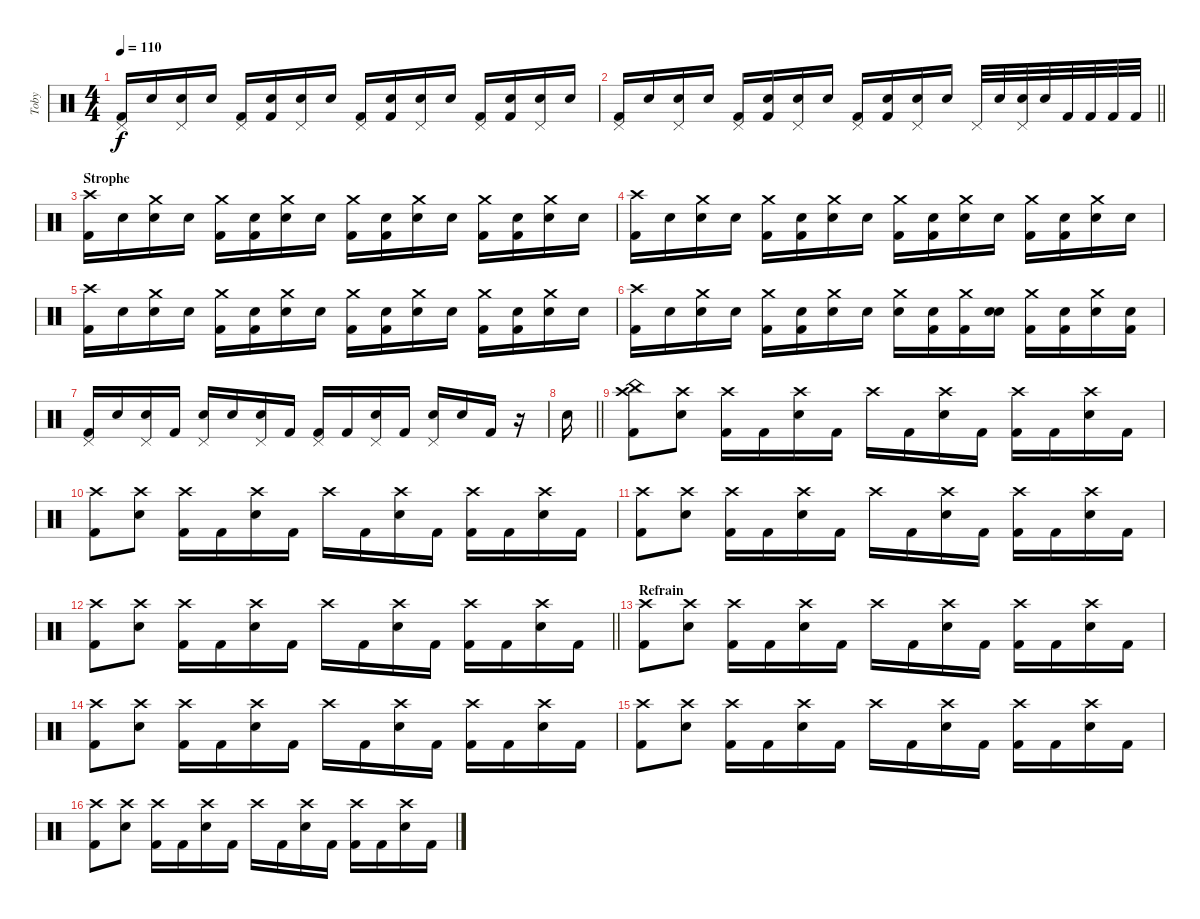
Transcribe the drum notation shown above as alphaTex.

\track ("Toby" "Toby") {instrument percussion}
\staff {score}
\articulation defaults
\ts (4 4)
\tempo 110
\clef neutral
\ks c
("Pedal Hi-Hat (hit)" "Kick (hit) 2").16{dy f} "Snare (hit)".16 ("Pedal Hi-Hat (hit)" "Electric Snare (hit)").16 "Snare (hit)".16 ("Pedal Hi-Hat (hit)" "Kick (hit) 2").16 ("Snare (hit)" "Kick (hit) 2").16 ("Pedal Hi-Hat (hit)" "Electric Snare (hit)").16 "Snare (hit)".16 ("Pedal Hi-Hat (hit)" "Kick (hit) 2").16 ("Snare (hit)" "Kick (hit) 2").16 ("Pedal Hi-Hat (hit)" "Electric Snare (hit)").16 "Snare (hit)".16 ("Pedal Hi-Hat (hit)" "Kick (hit) 2").16 ("Snare (hit)" "Kick (hit) 2").16 ("Pedal Hi-Hat (hit)" "Electric Snare (hit)").16 "Snare (hit)".16 |
\barLineRight lightlight
("Pedal Hi-Hat (hit)" "Kick (hit) 2").16 "Snare (hit)".16 ("Pedal Hi-Hat (hit)" "Electric Snare (hit)").16 "Snare (hit)".16 ("Pedal Hi-Hat (hit)" "Kick (hit) 2").16 ("Snare (hit)" "Kick (hit) 2").16 ("Pedal Hi-Hat (hit)" "Electric Snare (hit)").16 "Snare (hit)".16 ("Pedal Hi-Hat (hit)" "Kick (hit) 2").16 ("Snare (hit)" "Kick (hit) 2").16 ("Pedal Hi-Hat (hit)" "Electric Snare (hit)").16 "Snare (hit)".16 "Pedal Hi-Hat (hit)".32 "Snare (hit)".32 ("Pedal Hi-Hat (hit)" "Electric Snare (hit)").32 "Snare (hit)".32 "Kick (hit) 2".32 "Kick (hit) 2".32 "Kick (hit) 2".32 "Kick (hit) 2".32 |
\section ("" "Strophe")
("Crash high (hit)" "Kick (hit) 2").16 "Snare (hit)".16 ("Crash medium (hit)" "Electric Snare (hit)").16 "Snare (hit)".16 ("Crash medium (hit)" "Kick (hit) 2").16 ("Snare (hit)" "Kick (hit) 2").16 ("Crash medium (hit)" "Electric Snare (hit)").16 "Snare (hit)".16 ("Crash medium (hit)" "Kick (hit) 2").16 ("Snare (hit)" "Kick (hit) 2").16 ("Crash medium (hit)" "Electric Snare (hit)").16 "Snare (hit)".16 ("Crash medium (hit)" "Kick (hit) 2").16 ("Snare (hit)" "Kick (hit) 2").16 ("Crash medium (hit)" "Electric Snare (hit)").16 "Snare (hit)".16 |
("Crash high (hit)" "Kick (hit) 2").16 "Snare (hit)".16 ("Crash medium (hit)" "Electric Snare (hit)").16 "Snare (hit)".16 ("Crash medium (hit)" "Kick (hit) 2").16 ("Snare (hit)" "Kick (hit) 2").16 ("Crash medium (hit)" "Electric Snare (hit)").16 "Snare (hit)".16 ("Crash medium (hit)" "Kick (hit) 2").16 ("Snare (hit)" "Kick (hit) 2").16 ("Crash medium (hit)" "Electric Snare (hit)").16 "Snare (hit)".16 ("Crash medium (hit)" "Kick (hit) 2").16 ("Snare (hit)" "Kick (hit) 2").16 ("Crash medium (hit)" "Electric Snare (hit)").16 "Snare (hit)".16 |
("Crash high (hit)" "Kick (hit) 2").16 "Snare (hit)".16 ("Crash medium (hit)" "Electric Snare (hit)").16 "Snare (hit)".16 ("Crash medium (hit)" "Kick (hit) 2").16 ("Snare (hit)" "Kick (hit) 2").16 ("Crash medium (hit)" "Electric Snare (hit)").16 "Snare (hit)".16 ("Crash medium (hit)" "Kick (hit) 2").16 ("Snare (hit)" "Kick (hit) 2").16 ("Crash medium (hit)" "Electric Snare (hit)").16 "Snare (hit)".16 ("Crash medium (hit)" "Kick (hit) 2").16 ("Snare (hit)" "Kick (hit) 2").16 ("Crash medium (hit)" "Electric Snare (hit)").16 "Snare (hit)".16 |
("Crash high (hit)" "Kick (hit) 2").16 "Snare (hit)".16 ("Crash medium (hit)" "Electric Snare (hit)").16 "Snare (hit)".16 ("Crash medium (hit)" "Kick (hit) 2").16 ("Snare (hit)" "Kick (hit) 2").16 ("Crash medium (hit)" "Electric Snare (hit)").16 "Snare (hit)".16 ("Crash medium (hit)" "Electric Snare (hit)").16 ("Snare (hit)" "Kick (hit) 2").16 ("Crash medium (hit)" "Kick (hit) 2").16 ("Snare (hit)" "Electric Snare (hit)").16 ("Crash medium (hit)" "Kick (hit) 2").16 ("Snare (hit)" "Kick (hit) 2").16 ("Crash medium (hit)" "Electric Snare (hit)").16 ("Snare (hit)" "Kick (hit) 2").16 |
("Pedal Hi-Hat (hit)" "Kick (hit) 2").16 "Snare (hit)".16 ("Pedal Hi-Hat (hit)" "Snare (hit)").16 "Kick (hit) 2".16 ("Pedal Hi-Hat (hit)" "Electric Snare (hit)").16 "Snare (hit)".16 ("Pedal Hi-Hat (hit)" "Snare (hit)").16 "Kick (hit) 2".16 ("Pedal Hi-Hat (hit)" "Kick (hit) 2").16 "Kick (hit) 2".16 ("Pedal Hi-Hat (hit)" "Snare (hit)").16 "Kick (hit) 2".16 ("Pedal Hi-Hat (hit)" "Electric Snare (hit)").16 "Snare (hit)".16 "Kick (hit) 2".16 r.16 |
\barLineRight lightlight "Electric Snare (hit)".16
|
("Crash high (hit)" "China (hit)" "Kick (hit) 2").8 ("Crash high (hit)" "Electric Snare (hit)").8 ("Crash high (hit)" "Kick (hit) 2").16 "Kick (hit) 2".16 ("Crash high (hit)" "Electric Snare (hit)").16 "Kick (hit) 2".16 "Crash high (hit)".16 "Kick (hit) 2".16 ("Crash high (hit)" "Electric Snare (hit)").16 "Kick (hit) 2".16 ("Crash high (hit)" "Kick (hit) 2").16 "Kick (hit) 2".16 ("Crash high (hit)" "Electric Snare (hit)").16 "Kick (hit) 2".16 |
("Crash high (hit)" "Kick (hit) 2").8 ("Crash high (hit)" "Electric Snare (hit)").8 ("Crash high (hit)" "Kick (hit) 2").16 "Kick (hit) 2".16 ("Crash high (hit)" "Electric Snare (hit)").16 "Kick (hit) 2".16 "Crash high (hit)".16 "Kick (hit) 2".16 ("Crash high (hit)" "Electric Snare (hit)").16 "Kick (hit) 2".16 ("Crash high (hit)" "Kick (hit) 2").16 "Kick (hit) 2".16 ("Crash high (hit)" "Electric Snare (hit)").16 "Kick (hit) 2".16 |
("Crash high (hit)" "Kick (hit) 2").8 ("Crash high (hit)" "Electric Snare (hit)").8 ("Crash high (hit)" "Kick (hit) 2").16 "Kick (hit) 2".16 ("Crash high (hit)" "Electric Snare (hit)").16 "Kick (hit) 2".16 "Crash high (hit)".16 "Kick (hit) 2".16 ("Crash high (hit)" "Electric Snare (hit)").16 "Kick (hit) 2".16 ("Crash high (hit)" "Kick (hit) 2").16 "Kick (hit) 2".16 ("Crash high (hit)" "Electric Snare (hit)").16 "Kick (hit) 2".16 |
\barLineRight lightlight
("Crash high (hit)" "Kick (hit) 2").8 ("Crash high (hit)" "Electric Snare (hit)").8 ("Crash high (hit)" "Kick (hit) 2").16 "Kick (hit) 2".16 ("Crash high (hit)" "Electric Snare (hit)").16 "Kick (hit) 2".16 "Crash high (hit)".16 "Kick (hit) 2".16 ("Crash high (hit)" "Electric Snare (hit)").16 "Kick (hit) 2".16 ("Crash high (hit)" "Kick (hit) 2").16 "Kick (hit) 2".16 ("Crash high (hit)" "Electric Snare (hit)").16 "Kick (hit) 2".16 |
\section ("" "Refrain")
("Crash high (hit)" "Kick (hit) 2").8 ("Crash high (hit)" "Electric Snare (hit)").8 ("Crash high (hit)" "Kick (hit) 2").16 "Kick (hit) 2".16 ("Crash high (hit)" "Electric Snare (hit)").16 "Kick (hit) 2".16 "Crash high (hit)".16 "Kick (hit) 2".16 ("Crash high (hit)" "Electric Snare (hit)").16 "Kick (hit) 2".16 ("Crash high (hit)" "Kick (hit) 2").16 "Kick (hit) 2".16 ("Crash high (hit)" "Electric Snare (hit)").16 "Kick (hit) 2".16 |
("Crash high (hit)" "Kick (hit) 2").8 ("Crash high (hit)" "Electric Snare (hit)").8 ("Crash high (hit)" "Kick (hit) 2").16 "Kick (hit) 2".16 ("Crash high (hit)" "Electric Snare (hit)").16 "Kick (hit) 2".16 "Crash high (hit)".16 "Kick (hit) 2".16 ("Crash high (hit)" "Electric Snare (hit)").16 "Kick (hit) 2".16 ("Crash high (hit)" "Kick (hit) 2").16 "Kick (hit) 2".16 ("Crash high (hit)" "Electric Snare (hit)").16 "Kick (hit) 2".16 |
("Crash high (hit)" "Kick (hit) 2").8 ("Crash high (hit)" "Electric Snare (hit)").8 ("Crash high (hit)" "Kick (hit) 2").16 "Kick (hit) 2".16 ("Crash high (hit)" "Electric Snare (hit)").16 "Kick (hit) 2".16 "Crash high (hit)".16 "Kick (hit) 2".16 ("Crash high (hit)" "Electric Snare (hit)").16 "Kick (hit) 2".16 ("Crash high (hit)" "Kick (hit) 2").16 "Kick (hit) 2".16 ("Crash high (hit)" "Electric Snare (hit)").16 "Kick (hit) 2".16 |
("Crash high (hit)" "Kick (hit) 2").8 ("Crash high (hit)" "Electric Snare (hit)").8 ("Crash high (hit)" "Kick (hit) 2").16 "Kick (hit) 2".16 ("Crash high (hit)" "Electric Snare (hit)").16 "Kick (hit) 2".16 "Crash high (hit)".16 "Kick (hit) 2".16 ("Crash high (hit)" "Electric Snare (hit)").16 "Kick (hit) 2".16 ("Crash high (hit)" "Kick (hit) 2").16 "Kick (hit) 2".16 ("Crash high (hit)" "Electric Snare (hit)").16 "Kick (hit) 2".16
